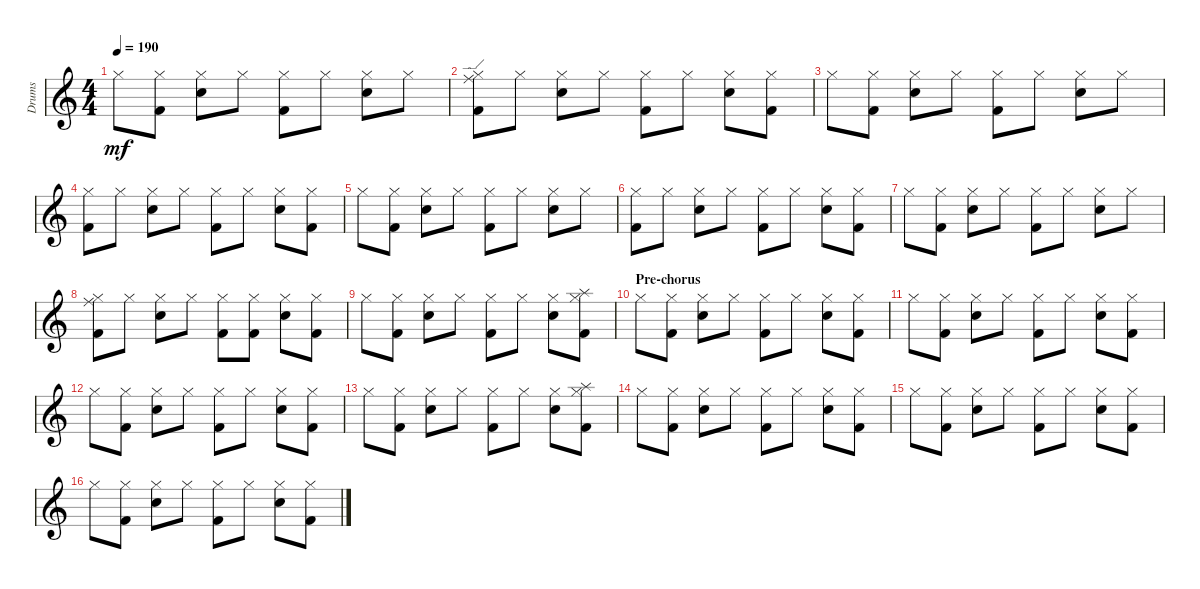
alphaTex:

\defaultSystemsLayout 4
\bracketExtendMode groupsimilarinstruments
\otherSystemsTrackNameOrientation horizontal
\track ("Prakarsh" "Drums") {instrument percussion}
\staff {score}
\articulation defaults
\ts (4 4)
\tempo 190
\clef g2
\ks c "Hi-Hat (closed)".8{dy mf beam Down}
("Hi-Hat (closed)" "Kick (hit) 2").8{beam Down} ("Hi-Hat (closed)" "Snare (hit) 2").8{beam Down} "Hi-Hat (closed)".8{beam Down} ("Hi-Hat (closed)" "Kick (hit) 2").8{beam Down} "Hi-Hat (closed)".8{beam Down} ("Hi-Hat (closed)" "Snare (hit) 2").8{beam Down} "Hi-Hat (closed)".8{beam Down} |
("Kick (hit) 2" "Hi-Hat (closed)" "Ride (edge)").8{beam Down} "Hi-Hat (closed)".8{beam Down} ("Hi-Hat (closed)" "Snare (hit) 2").8{beam Down} "Hi-Hat (closed)".8{beam Down} ("Hi-Hat (closed)" "Kick (hit) 2").8{beam Down} "Hi-Hat (closed)".8{beam Down} ("Hi-Hat (closed)" "Snare (hit) 2").8{beam Down} ("Hi-Hat (closed)" "Kick (hit) 2").8{beam Down} |
"Hi-Hat (closed)".8{beam Down} ("Hi-Hat (closed)" "Kick (hit) 2").8{beam Down} ("Hi-Hat (closed)" "Snare (hit) 2").8{beam Down} "Hi-Hat (closed)".8{beam Down} ("Hi-Hat (closed)" "Kick (hit) 2").8{beam Down} "Hi-Hat (closed)".8{beam Down} ("Hi-Hat (closed)" "Snare (hit) 2").8{beam Down} "Hi-Hat (closed)".8{beam Down} |
("Kick (hit) 2" "Hi-Hat (closed)").8{beam Down} "Hi-Hat (closed)".8{beam Down} ("Hi-Hat (closed)" "Snare (hit) 2").8{beam Down} "Hi-Hat (closed)".8{beam Down} ("Hi-Hat (closed)" "Kick (hit) 2").8{beam Down} "Hi-Hat (closed)".8{beam Down} ("Hi-Hat (closed)" "Snare (hit) 2").8{beam Down} ("Hi-Hat (closed)" "Kick (hit) 2").8{beam Down} |
"Hi-Hat (closed)".8{beam Down} ("Hi-Hat (closed)" "Kick (hit) 2").8{beam Down} ("Hi-Hat (closed)" "Snare (hit) 2").8{beam Down} "Hi-Hat (closed)".8{beam Down} ("Hi-Hat (closed)" "Kick (hit) 2").8{beam Down} "Hi-Hat (closed)".8{beam Down} ("Hi-Hat (closed)" "Snare (hit) 2").8{beam Down} "Hi-Hat (closed)".8{beam Down} |
("Kick (hit) 2" "Hi-Hat (closed)").8{beam Down} "Hi-Hat (closed)".8{beam Down} ("Hi-Hat (closed)" "Snare (hit) 2").8{beam Down} "Hi-Hat (closed)".8{beam Down} ("Hi-Hat (closed)" "Kick (hit) 2").8{beam Down} "Hi-Hat (closed)".8{beam Down} ("Hi-Hat (closed)" "Snare (hit) 2").8{beam Down} ("Hi-Hat (closed)" "Kick (hit) 2").8{beam Down} |
"Hi-Hat (closed)".8{beam Down} ("Hi-Hat (closed)" "Kick (hit) 2").8{beam Down} ("Hi-Hat (closed)" "Snare (hit) 2").8{beam Down} "Hi-Hat (closed)".8{beam Down} ("Hi-Hat (closed)" "Kick (hit) 2").8{beam Down} "Hi-Hat (closed)".8{beam Down} ("Hi-Hat (closed)" "Snare (hit) 2").8{beam Down} "Hi-Hat (closed)".8{beam Down} |
("Kick (hit) 2" "Hi-Hat (closed)" "Ride (middle)").8{beam Down} "Hi-Hat (closed)".8{beam Down} ("Hi-Hat (closed)" "Snare (hit) 2").8{beam Down} "Hi-Hat (closed)".8{beam Down} ("Hi-Hat (closed)" "Kick (hit) 2").8{beam Down} ("Hi-Hat (closed)" "Kick (hit) 2").8{beam Down} ("Hi-Hat (closed)" "Snare (hit) 2").8{beam Down} ("Hi-Hat (closed)" "Kick (hit) 2").8{beam Down} |
"Hi-Hat (closed)".8{beam Down} ("Hi-Hat (closed)" "Kick (hit) 2").8{beam Down} ("Hi-Hat (closed)" "Snare (hit) 2").8{beam Down} "Hi-Hat (closed)".8{beam Down} ("Hi-Hat (closed)" "Kick (hit) 2").8{beam Down} "Hi-Hat (closed)".8{beam Down} ("Hi-Hat (closed)" "Snare (hit) 2").8{beam Down} ("Hi-Hat (closed)" "Kick (hit) 2" "Splash (hit)").8{beam Down} |
\section ("" "Pre-chorus")
"Hi-Hat (closed)".8{beam Down} ("Hi-Hat (closed)" "Kick (hit) 2").8{beam Down} ("Hi-Hat (closed)" "Snare (hit) 2").8{beam Down} "Hi-Hat (closed)".8{beam Down} ("Hi-Hat (closed)" "Kick (hit) 2").8{beam Down} "Hi-Hat (closed)".8{beam Down} ("Hi-Hat (closed)" "Snare (hit) 2").8{beam Down} ("Hi-Hat (closed)" "Kick (hit) 2").8{beam Down} |
"Hi-Hat (closed)".8{beam Down} ("Hi-Hat (closed)" "Kick (hit) 2").8{beam Down} ("Hi-Hat (closed)" "Snare (hit) 2").8{beam Down} "Hi-Hat (closed)".8{beam Down} ("Hi-Hat (closed)" "Kick (hit) 2").8{beam Down} "Hi-Hat (closed)".8{beam Down} ("Hi-Hat (closed)" "Snare (hit) 2").8{beam Down} ("Hi-Hat (closed)" "Kick (hit) 2").8{beam Down} |
"Hi-Hat (closed)".8{beam Down} ("Hi-Hat (closed)" "Kick (hit) 2").8{beam Down} ("Hi-Hat (closed)" "Snare (hit) 2").8{beam Down} "Hi-Hat (closed)".8{beam Down} ("Hi-Hat (closed)" "Kick (hit) 2").8{beam Down} "Hi-Hat (closed)".8{beam Down} ("Hi-Hat (closed)" "Snare (hit) 2").8{beam Down} ("Hi-Hat (closed)" "Kick (hit) 2").8{beam Down} |
"Hi-Hat (closed)".8{beam Down} ("Hi-Hat (closed)" "Kick (hit) 2").8{beam Down} ("Hi-Hat (closed)" "Snare (hit) 2").8{beam Down} "Hi-Hat (closed)".8{beam Down} ("Hi-Hat (closed)" "Kick (hit) 2").8{beam Down} "Hi-Hat (closed)".8{beam Down} ("Hi-Hat (closed)" "Snare (hit) 2").8{beam Down} ("Hi-Hat (closed)" "Kick (hit) 2" "Splash (hit)").8{beam Down} |
"Hi-Hat (closed)".8{beam Down} ("Hi-Hat (closed)" "Kick (hit) 2").8{beam Down} ("Hi-Hat (closed)" "Snare (hit) 2").8{beam Down} "Hi-Hat (closed)".8{beam Down} ("Hi-Hat (closed)" "Kick (hit) 2").8{beam Down} "Hi-Hat (closed)".8{beam Down} ("Hi-Hat (closed)" "Snare (hit) 2").8{beam Down} ("Hi-Hat (closed)" "Kick (hit) 2").8{beam Down} |
"Hi-Hat (closed)".8{beam Down} ("Hi-Hat (closed)" "Kick (hit) 2").8{beam Down} ("Hi-Hat (closed)" "Snare (hit) 2").8{beam Down} "Hi-Hat (closed)".8{beam Down} ("Hi-Hat (closed)" "Kick (hit) 2").8{beam Down} "Hi-Hat (closed)".8{beam Down} ("Hi-Hat (closed)" "Snare (hit) 2").8{beam Down} ("Hi-Hat (closed)" "Kick (hit) 2").8{beam Down} |
"Hi-Hat (closed)".8{beam Down} ("Hi-Hat (closed)" "Kick (hit) 2").8{beam Down} ("Hi-Hat (closed)" "Snare (hit) 2").8{beam Down} "Hi-Hat (closed)".8{beam Down} ("Hi-Hat (closed)" "Kick (hit) 2").8{beam Down} "Hi-Hat (closed)".8{beam Down} ("Hi-Hat (closed)" "Snare (hit) 2").8{beam Down} ("Hi-Hat (closed)" "Kick (hit) 2").8{beam Down}
